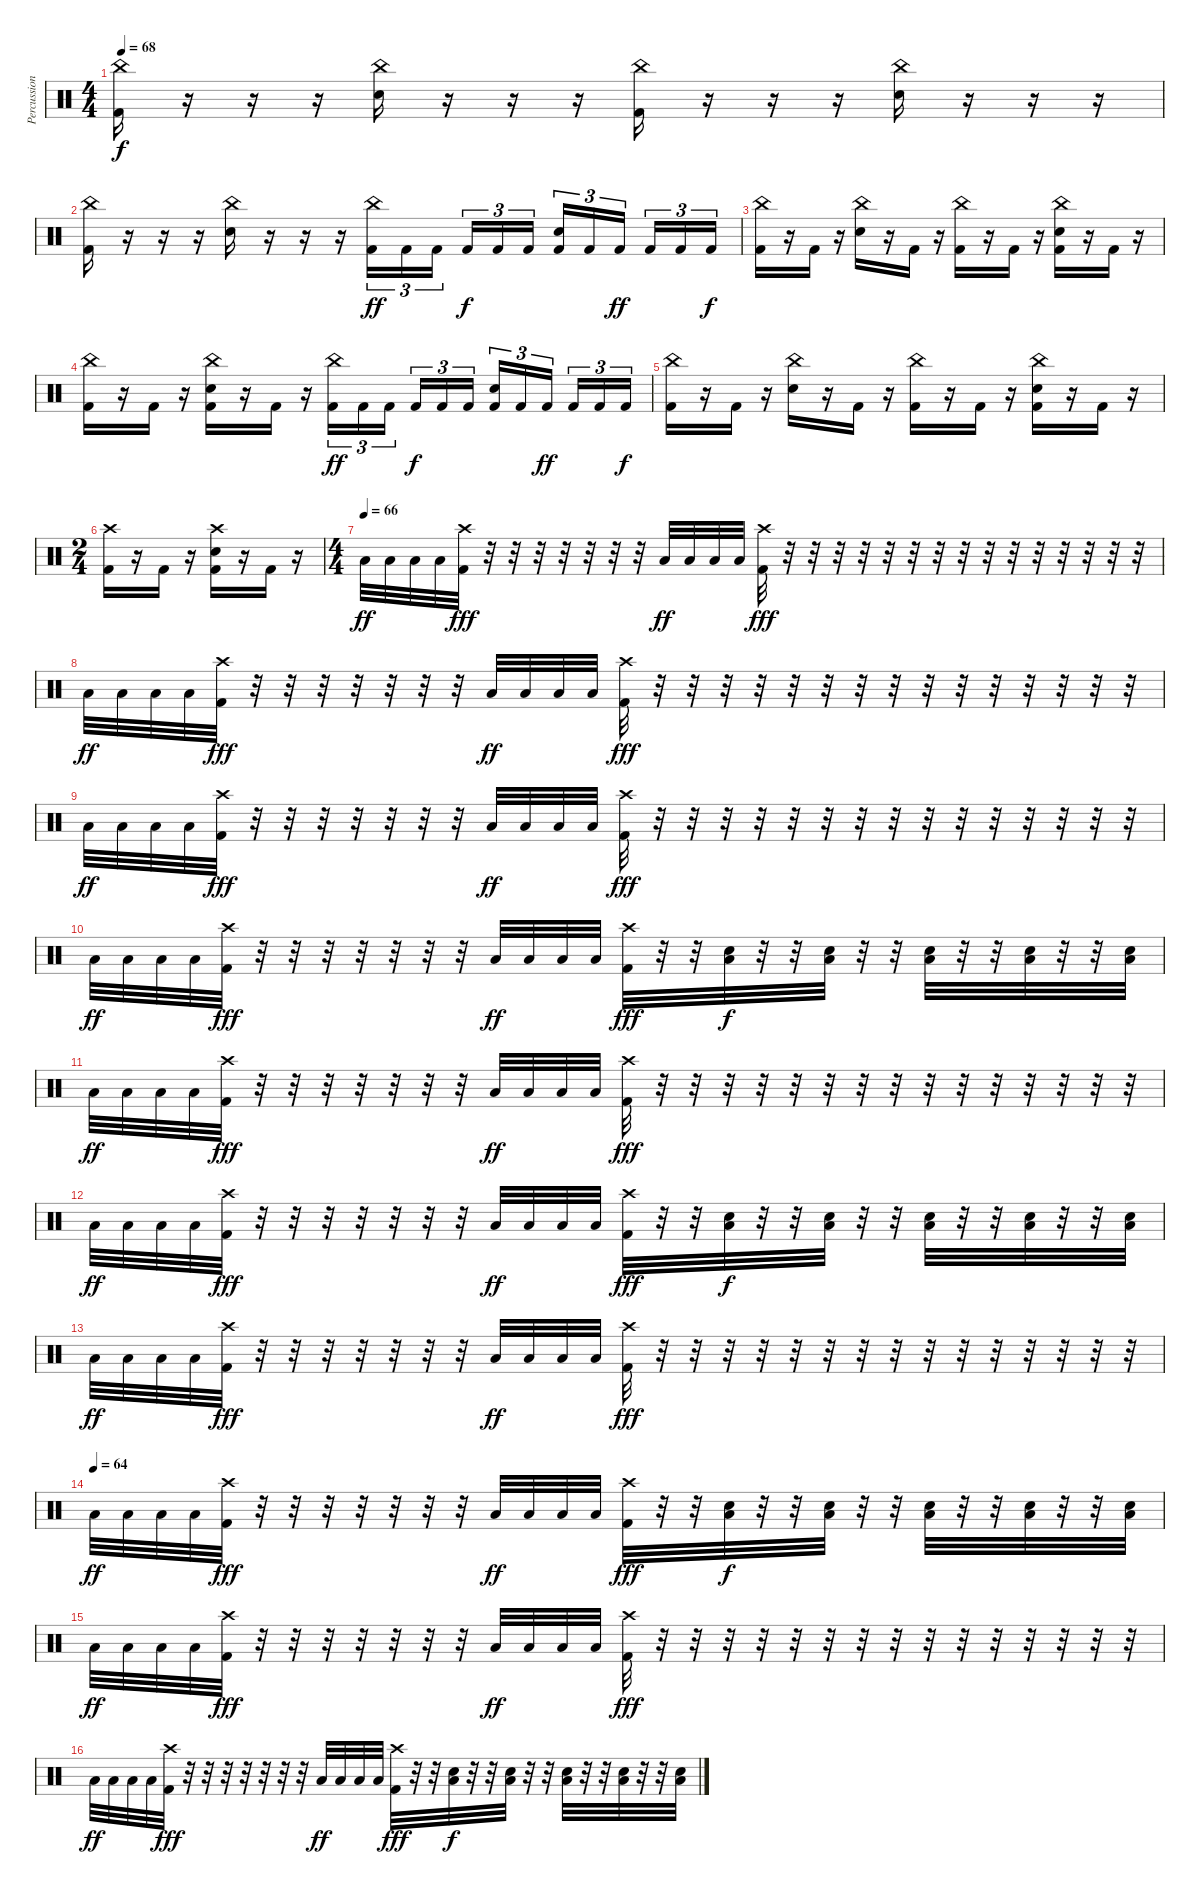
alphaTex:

\track ("Percussion" "Percussion") {instrument percussion}
\staff {score}
\articulation defaults
\ts (4 4)
\tempo 68
\clef neutral
\ks c
("China (hit)" "Kick (hit) 2").16{dy f} r.16 r.16 r.16 ("China (hit)" "Snare (hit) 2").16 r.16 r.16 r.16 ("China (hit)" "Kick (hit) 2").16 r.16 r.16 r.16 ("China (hit)" "Snare (hit) 2").16 r.16 r.16 r.16 |
("China (hit)" "Kick (hit) 2").16 r.16 r.16 r.16 ("China (hit)" "Snare (hit) 2").16 r.16 r.16 r.16 ("China (hit)" "Kick (hit) 2").16{tu (3 2) dy ff} "Kick (hit) 2".16{tu (3 2)} "Kick (hit) 2".16{tu (3 2) beam splitsecondary} "Kick (hit) 2".16{tu (3 2) dy f} "Kick (hit) 2".16{tu (3 2)} "Kick (hit) 2".16{tu (3 2)} ("Snare (hit) 2" "Kick (hit) 2").16{tu (3 2)} "Kick (hit) 2".16{tu (3 2)} "Kick (hit) 2".16{tu (3 2) dy ff beam splitsecondary} "Kick (hit) 2".16{tu (3 2)} "Kick (hit) 2".16{tu (3 2)} "Kick (hit) 2".16{tu (3 2) dy f} |
("China (hit)" "Kick (hit) 2").16 r.16 "Kick (hit) 2".16 r.16 ("China (hit)" "Snare (hit) 2").16 r.16 "Kick (hit) 2".16 r.16 ("China (hit)" "Kick (hit) 2").16 r.16 "Kick (hit) 2".16 r.16 ("China (hit)" "Snare (hit) 2" "Kick (hit) 2").16 r.16 "Kick (hit) 2".16 r.16 |
("China (hit)" "Kick (hit) 2").16 r.16 "Kick (hit) 2".16 r.16 ("China (hit)" "Snare (hit) 2" "Kick (hit) 2").16 r.16 "Kick (hit) 2".16 r.16 ("China (hit)" "Kick (hit) 2").16{tu (3 2) dy ff} "Kick (hit) 2".16{tu (3 2)} "Kick (hit) 2".16{tu (3 2) beam splitsecondary} "Kick (hit) 2".16{tu (3 2) dy f} "Kick (hit) 2".16{tu (3 2)} "Kick (hit) 2".16{tu (3 2)} ("Snare (hit) 2" "Kick (hit) 2").16{tu (3 2)} "Kick (hit) 2".16{tu (3 2)} "Kick (hit) 2".16{tu (3 2) dy ff beam splitsecondary} "Kick (hit) 2".16{tu (3 2)} "Kick (hit) 2".16{tu (3 2)} "Kick (hit) 2".16{tu (3 2) dy f} |
("China (hit)" "Kick (hit) 2").16 r.16 "Kick (hit) 2".16 r.16 ("China (hit)" "Snare (hit) 2").16 r.16 "Kick (hit) 2".16 r.16 ("China (hit)" "Kick (hit) 2").16 r.16 "Kick (hit) 2".16 r.16 ("China (hit)" "Snare (hit) 2" "Kick (hit) 2").16 r.16 "Kick (hit) 2".16 r.16 |
\ts (2 4)
("Crash high (hit)" "Kick (hit) 2").16 r.16 "Kick (hit) 2".16 r.16 ("Crash high (hit)" "Snare (hit) 2" "Kick (hit) 2").16 r.16 "Kick (hit) 2".16 r.16 |
\ts (4 4)
\tempo (66)
"Low Floor Tom (hit)".32{dy ff} "Low Floor Tom (hit)".32 "Low Floor Tom (hit)".32 "Low Floor Tom (hit)".32 ("Crash high (hit)" "Kick (hit) 2").32{dy fff} r.32 r.32 r.32 r.32 r.32 r.32 r.32 "Low Floor Tom (hit)".32{dy ff} "Low Floor Tom (hit)".32 "Low Floor Tom (hit)".32 "Low Floor Tom (hit)".32 ("Crash high (hit)" "Kick (hit) 2").32{dy fff} r.32 r.32 r.32 r.32 r.32 r.32 r.32 r.32 r.32 r.32 r.32 r.32 r.32 r.32 r.32 |
"Low Floor Tom (hit)".32{dy ff} "Low Floor Tom (hit)".32 "Low Floor Tom (hit)".32 "Low Floor Tom (hit)".32 ("Crash high (hit)" "Kick (hit) 2").32{dy fff} r.32 r.32 r.32 r.32 r.32 r.32 r.32 "Low Floor Tom (hit)".32{dy ff} "Low Floor Tom (hit)".32 "Low Floor Tom (hit)".32 "Low Floor Tom (hit)".32 ("Crash high (hit)" "Kick (hit) 2").32{dy fff} r.32 r.32 r.32 r.32 r.32 r.32 r.32 r.32 r.32 r.32 r.32 r.32 r.32 r.32 r.32 |
"Low Floor Tom (hit)".32{dy ff} "Low Floor Tom (hit)".32 "Low Floor Tom (hit)".32 "Low Floor Tom (hit)".32 ("Crash high (hit)" "Kick (hit) 2").32{dy fff} r.32 r.32 r.32 r.32 r.32 r.32 r.32 "Low Floor Tom (hit)".32{dy ff} "Low Floor Tom (hit)".32 "Low Floor Tom (hit)".32 "Low Floor Tom (hit)".32 ("Crash high (hit)" "Kick (hit) 2").32{dy fff} r.32 r.32 r.32 r.32 r.32 r.32 r.32 r.32 r.32 r.32 r.32 r.32 r.32 r.32 r.32 |
"Low Floor Tom (hit)".32{dy ff} "Low Floor Tom (hit)".32 "Low Floor Tom (hit)".32 "Low Floor Tom (hit)".32 ("Crash high (hit)" "Kick (hit) 2").32{dy fff} r.32 r.32 r.32 r.32 r.32 r.32 r.32 "Low Floor Tom (hit)".32{dy ff} "Low Floor Tom (hit)".32 "Low Floor Tom (hit)".32 "Low Floor Tom (hit)".32 ("Crash high (hit)" "Kick (hit) 2").32{dy fff} r.32 r.32 ("Snare (hit) 2" "Low Tom (hit)").32{dy f} r.32 r.32 ("Snare (hit) 2" "Low Tom (hit)").32 r.32 r.32 ("Snare (hit) 2" "Low Tom (hit)").32 r.32 r.32 ("Snare (hit) 2" "Low Tom (hit)").32 r.32 r.32 ("Snare (hit) 2" "Low Tom (hit)").32 |
"Low Floor Tom (hit)".32{dy ff} "Low Floor Tom (hit)".32 "Low Floor Tom (hit)".32 "Low Floor Tom (hit)".32 ("Crash high (hit)" "Kick (hit) 2").32{dy fff} r.32 r.32 r.32 r.32 r.32 r.32 r.32 "Low Floor Tom (hit)".32{dy ff} "Low Floor Tom (hit)".32 "Low Floor Tom (hit)".32 "Low Floor Tom (hit)".32 ("Crash high (hit)" "Kick (hit) 2").32{dy fff} r.32 r.32 r.32 r.32 r.32 r.32 r.32 r.32 r.32 r.32 r.32 r.32 r.32 r.32 r.32 |
"Low Floor Tom (hit)".32{dy ff} "Low Floor Tom (hit)".32 "Low Floor Tom (hit)".32 "Low Floor Tom (hit)".32 ("Crash high (hit)" "Kick (hit) 2").32{dy fff} r.32 r.32 r.32 r.32 r.32 r.32 r.32 "Low Floor Tom (hit)".32{dy ff} "Low Floor Tom (hit)".32 "Low Floor Tom (hit)".32 "Low Floor Tom (hit)".32 ("Crash high (hit)" "Kick (hit) 2").32{dy fff} r.32 r.32 ("Snare (hit) 2" "Low Tom (hit)").32{dy f} r.32 r.32 ("Snare (hit) 2" "Low Tom (hit)").32 r.32 r.32 ("Snare (hit) 2" "Low Tom (hit)").32 r.32 r.32 ("Snare (hit) 2" "Low Tom (hit)").32 r.32 r.32 ("Snare (hit) 2" "Low Tom (hit)").32 |
"Low Floor Tom (hit)".32{dy ff} "Low Floor Tom (hit)".32 "Low Floor Tom (hit)".32 "Low Floor Tom (hit)".32 ("Crash high (hit)" "Kick (hit) 2").32{dy fff} r.32 r.32 r.32 r.32 r.32 r.32 r.32 "Low Floor Tom (hit)".32{dy ff} "Low Floor Tom (hit)".32 "Low Floor Tom (hit)".32 "Low Floor Tom (hit)".32 ("Crash high (hit)" "Kick (hit) 2").32{dy fff} r.32 r.32 r.32 r.32 r.32 r.32 r.32 r.32 r.32 r.32 r.32 r.32 r.32 r.32 r.32 |
\tempo (64)
"Low Floor Tom (hit)".32{dy ff} "Low Floor Tom (hit)".32 "Low Floor Tom (hit)".32 "Low Floor Tom (hit)".32 ("Crash high (hit)" "Kick (hit) 2").32{dy fff} r.32 r.32 r.32 r.32 r.32 r.32 r.32 "Low Floor Tom (hit)".32{dy ff} "Low Floor Tom (hit)".32 "Low Floor Tom (hit)".32 "Low Floor Tom (hit)".32 ("Crash high (hit)" "Kick (hit) 2").32{dy fff} r.32 r.32 ("Snare (hit) 2" "Low Tom (hit)").32{dy f} r.32 r.32 ("Snare (hit) 2" "Low Tom (hit)").32 r.32 r.32 ("Snare (hit) 2" "Low Tom (hit)").32 r.32 r.32 ("Snare (hit) 2" "Low Tom (hit)").32 r.32 r.32 ("Snare (hit) 2" "Low Tom (hit)").32 |
"Low Floor Tom (hit)".32{dy ff} "Low Floor Tom (hit)".32 "Low Floor Tom (hit)".32 "Low Floor Tom (hit)".32 ("Crash high (hit)" "Kick (hit) 2").32{dy fff} r.32 r.32 r.32 r.32 r.32 r.32 r.32 "Low Floor Tom (hit)".32{dy ff} "Low Floor Tom (hit)".32 "Low Floor Tom (hit)".32 "Low Floor Tom (hit)".32 ("Crash high (hit)" "Kick (hit) 2").32{dy fff} r.32 r.32 r.32 r.32 r.32 r.32 r.32 r.32 r.32 r.32 r.32 r.32 r.32 r.32 r.32 |
"Low Floor Tom (hit)".32{dy ff} "Low Floor Tom (hit)".32 "Low Floor Tom (hit)".32 "Low Floor Tom (hit)".32 ("Crash high (hit)" "Kick (hit) 2").32{dy fff} r.32 r.32 r.32 r.32 r.32 r.32 r.32 "Low Floor Tom (hit)".32{dy ff} "Low Floor Tom (hit)".32 "Low Floor Tom (hit)".32 "Low Floor Tom (hit)".32 ("Crash high (hit)" "Kick (hit) 2").32{dy fff} r.32 r.32 ("Snare (hit) 2" "Low Tom (hit)").32{dy f} r.32 r.32 ("Snare (hit) 2" "Low Tom (hit)").32 r.32 r.32 ("Snare (hit) 2" "Low Tom (hit)").32 r.32 r.32 ("Snare (hit) 2" "Low Tom (hit)").32 r.32 r.32 ("Snare (hit) 2" "Low Tom (hit)").32
